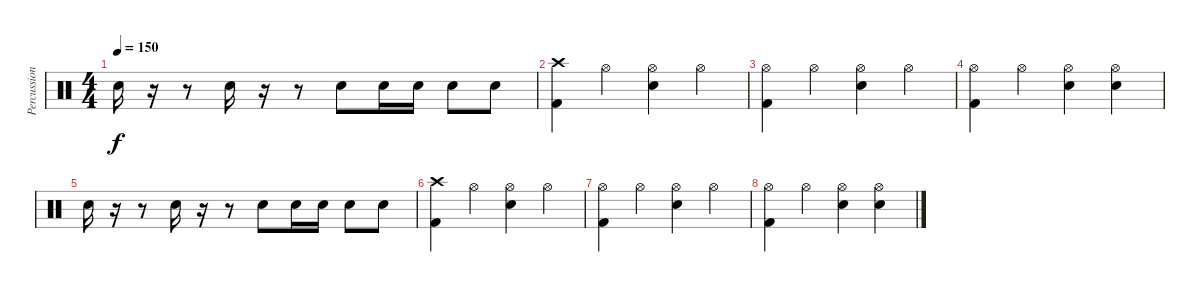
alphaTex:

\track ("Percussion" "Percussion") {instrument percussion}
\staff {score}
\articulation defaults
\ts (4 4)
\tempo 150
\clef neutral
\ks c "Snare (hit) 2".16{dy f}
r.16 r.8 "Snare (hit) 2".16 r.16 r.8 "Snare (hit) 2".8 "Snare (hit) 2".16 "Snare (hit) 2".16 "Snare (hit) 2".8 "Snare (hit) 2".8 |
("Crash high (hit)" "Kick (hit) 2").4 "Hi-Hat (open)".4 ("Hi-Hat (open)" "Electric Snare (hit)").4 "Hi-Hat (open)".4 |
("Hi-Hat (open)" "Kick (hit) 2").4 "Hi-Hat (open)".4 ("Hi-Hat (open)" "Electric Snare (hit)").4 "Hi-Hat (open)".4 |
("Hi-Hat (open)" "Kick (hit) 2").4 "Hi-Hat (open)".4 ("Hi-Hat (open)" "Electric Snare (hit)").4 ("Hi-Hat (open)" "Electric Snare (hit)").4 |
"Snare (hit) 2".16 r.16 r.8 "Snare (hit) 2".16 r.16 r.8 "Snare (hit) 2".8 "Snare (hit) 2".16 "Snare (hit) 2".16 "Snare (hit) 2".8 "Snare (hit) 2".8 |
("Crash high (hit)" "Kick (hit) 2").4 "Hi-Hat (open)".4 ("Hi-Hat (open)" "Electric Snare (hit)").4 "Hi-Hat (open)".4 |
("Hi-Hat (open)" "Kick (hit) 2").4 "Hi-Hat (open)".4 ("Hi-Hat (open)" "Electric Snare (hit)").4 "Hi-Hat (open)".4 |
("Hi-Hat (open)" "Kick (hit) 2").4 "Hi-Hat (open)".4 ("Hi-Hat (open)" "Electric Snare (hit)").4 ("Hi-Hat (open)" "Electric Snare (hit)").4
